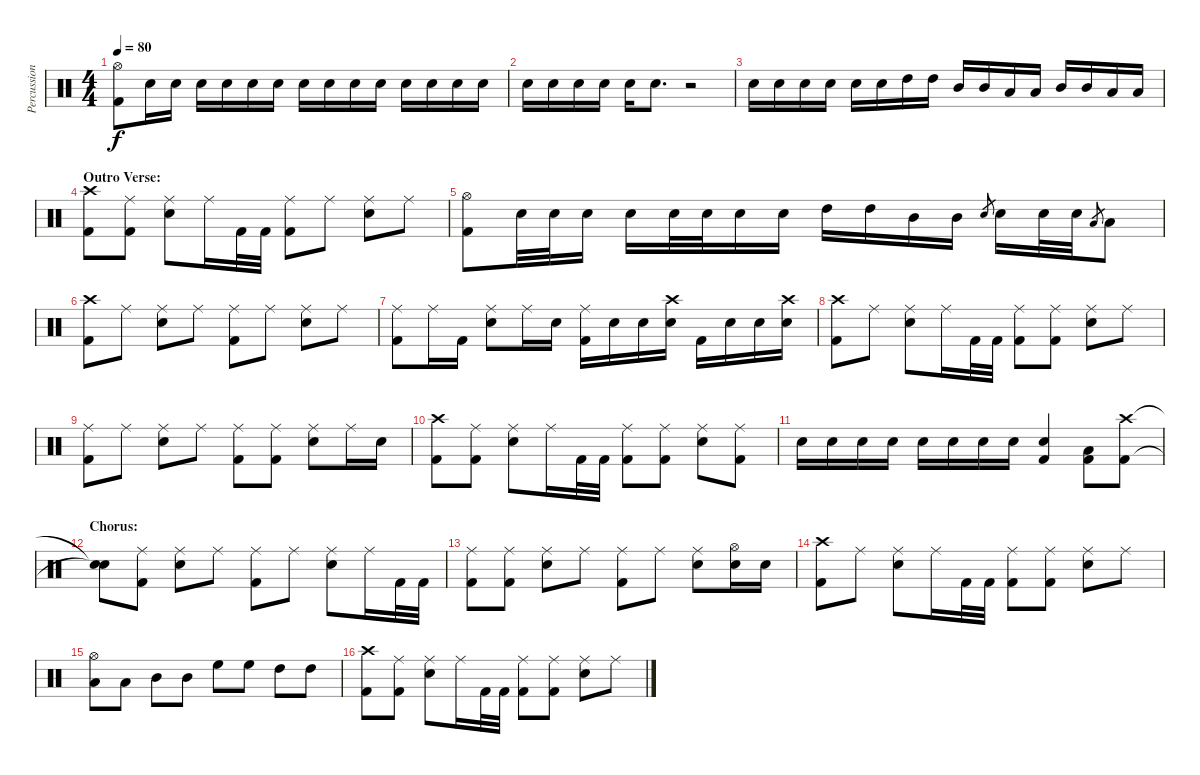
\track ("Percussion" "Percussion") {instrument percussion}
\staff {score}
\articulation defaults
\ts (4 4)
\tempo 80
\clef neutral
\ks c
("Hi-Hat (open)" "Kick (hit) 2").8{dy f} "Electric Snare (hit)".16 "Electric Snare (hit)".16 "Electric Snare (hit)".16 "Electric Snare (hit)".16 "Electric Snare (hit)".16 "Electric Snare (hit)".16 "Electric Snare (hit)".16 "Electric Snare (hit)".16 "Electric Snare (hit)".16 "Electric Snare (hit)".16 "Electric Snare (hit)".16 "Electric Snare (hit)".16 "Electric Snare (hit)".16 "Electric Snare (hit)".16 |
"Electric Snare (hit)".16 "Electric Snare (hit)".16 "Electric Snare (hit)".16 "Electric Snare (hit)".16 "Electric Snare (hit)".16 "Electric Snare (hit)".8{d} r.2 |
"Electric Snare (hit)".16 "Electric Snare (hit)".16 "Electric Snare (hit)".16 "Electric Snare (hit)".16 "Electric Snare (hit)".16 "Electric Snare (hit)".16 "High Tom (hit)".16 "High Tom (hit)".16 "Mid Tom (hit)".16 "Mid Tom (hit)".16 "Low Tom (hit)".16 "Low Tom (hit)".16 "Mid Tom (hit)".16 "Mid Tom (hit)".16 "Low Tom (hit)".16 "Low Tom (hit)".16 |
\section ("" "Outro Verse:")
("Crash high (hit)" "Kick (hit) 2").8 ("Ride (middle)" "Kick (hit) 2").8 ("Ride (middle)" "Electric Snare (hit)").8 "Ride (middle)".16 "Kick (hit) 2".32 "Kick (hit) 2".32 ("Ride (middle)" "Kick (hit) 2").8 "Ride (middle)".8 ("Ride (middle)" "Electric Snare (hit)").8 "Ride (middle)".8 |
("Hi-Hat (open)" "Kick (hit) 2").8 "Electric Snare (hit)".32 "Electric Snare (hit)".32 "Electric Snare (hit)".16 "Electric Snare (hit)".16 "Electric Snare (hit)".32 "Electric Snare (hit)".32 "Electric Snare (hit)".16 "Electric Snare (hit)".16 "High Tom (hit)".16 "High Tom (hit)".16 "Mid Tom (hit)".16 "Mid Tom (hit)".16 "Electric Snare (hit)".8{gr} "Electric Snare (hit)".16 "Electric Snare (hit)".32 "Electric Snare (hit)".32 "Low Tom (hit)".8{gr} "Low Tom (hit)".8 |
("Crash high (hit)" "Kick (hit) 2").8 "Ride (middle)".8 ("Ride (middle)" "Electric Snare (hit)").8 "Ride (middle)".8 ("Ride (middle)" "Kick (hit) 2").8 "Ride (middle)".8 ("Ride (middle)" "Electric Snare (hit)").8 "Ride (middle)".8 |
("Ride (middle)" "Kick (hit) 2").8 "Ride (middle)".16 "Kick (hit) 2".16 ("Ride (middle)" "Electric Snare (hit)").8 "Ride (middle)".16 "Electric Snare (hit)".16 ("Ride (middle)" "Kick (hit) 2").16 "Electric Snare (hit)".16 "Electric Snare (hit)".16 ("Crash high (hit)" "Electric Snare (hit)").16 "Kick (hit) 2".16 "Electric Snare (hit)".16 "Electric Snare (hit)".16 ("Crash high (hit)" "Electric Snare (hit)").16 |
("Crash high (hit)" "Kick (hit) 2").8 "Ride (middle)".8 ("Ride (middle)" "Electric Snare (hit)").8 "Ride (middle)".16 "Kick (hit) 2".32 "Kick (hit) 2".32 ("Ride (middle)" "Kick (hit) 2").8 ("Ride (middle)" "Kick (hit) 2").8 ("Ride (middle)" "Electric Snare (hit)").8 "Ride (middle)".8 |
("Ride (middle)" "Kick (hit) 2").8 "Ride (middle)".8 ("Ride (middle)" "Electric Snare (hit)").8 "Ride (middle)".8 ("Ride (middle)" "Kick (hit) 2").8 ("Ride (middle)" "Kick (hit) 2").8 ("Ride (middle)" "Electric Snare (hit)").8 "Ride (middle)".16 "Electric Snare (hit)".16 |
("Crash high (hit)" "Kick (hit) 2").8 ("Ride (middle)" "Kick (hit) 2").8 ("Ride (middle)" "Electric Snare (hit)").8 "Ride (middle)".16 "Kick (hit) 2".32 "Kick (hit) 2".32 ("Ride (middle)" "Kick (hit) 2").8 ("Ride (middle)" "Kick (hit) 2").8 ("Ride (middle)" "Electric Snare (hit)").8 ("Ride (middle)" "Kick (hit) 2").8 |
"Electric Snare (hit)".16 "Electric Snare (hit)".16 "Electric Snare (hit)".16 "Electric Snare (hit)".16 "Electric Snare (hit)".16 "Electric Snare (hit)".16 "Electric Snare (hit)".16 "Electric Snare (hit)".16 ("Electric Snare (hit)" "Kick (hit) 2").4 ("Low Tom (hit)" "Kick (hit) 2").8 ("Crash high (hit)" "Kick (hit) 2").8 |
\section ("" "Chorus:")
("Snare (hit)"{t} "Snare (hit)"{t}).8 ("Ride (middle)" "Kick (hit) 2").8 ("Ride (middle)" "Electric Snare (hit)").8 "Ride (middle)".8 ("Ride (middle)" "Kick (hit) 2").8 "Ride (middle)".8 ("Ride (middle)" "Electric Snare (hit)").8 "Ride (middle)".16 "Kick (hit) 2".32 "Kick (hit) 2".32 |
("Ride (middle)" "Kick (hit) 2").8 ("Ride (middle)" "Kick (hit) 2").8 ("Ride (middle)" "Electric Snare (hit)").8 "Ride (middle)".8 ("Ride (middle)" "Kick (hit) 2").8 "Ride (middle)".8 ("Ride (middle)" "Electric Snare (hit)").8 ("Hi-Hat (open)" "Electric Snare (hit)").16 "Electric Snare (hit)".16 |
("Crash high (hit)" "Kick (hit) 2").8 "Ride (middle)".8 ("Ride (middle)" "Electric Snare (hit)").8 "Ride (middle)".16 "Kick (hit) 2".32 "Kick (hit) 2".32 ("Ride (middle)" "Kick (hit) 2").8 ("Ride (middle)" "Kick (hit) 2").8 ("Ride (middle)" "Electric Snare (hit)").8 "Ride (middle)".8 |
("Hi-Hat (open)" "Low Tom (hit)").8 "Low Tom (hit)".8 "Mid Tom (hit)".8 "Mid Tom (hit)".8 "High Floor Tom (hit)".8 "High Floor Tom (hit)".8 "High Tom (hit)".8 "High Tom (hit)".8 |
("Crash high (hit)" "Kick (hit) 2").8 ("Ride (middle)" "Kick (hit) 2").8 ("Ride (middle)" "Electric Snare (hit)").8 "Ride (middle)".16 "Kick (hit) 2".32 "Kick (hit) 2".32 ("Ride (middle)" "Kick (hit) 2").8 ("Ride (middle)" "Kick (hit) 2").8 ("Ride (middle)" "Electric Snare (hit)").8 "Ride (middle)".8
